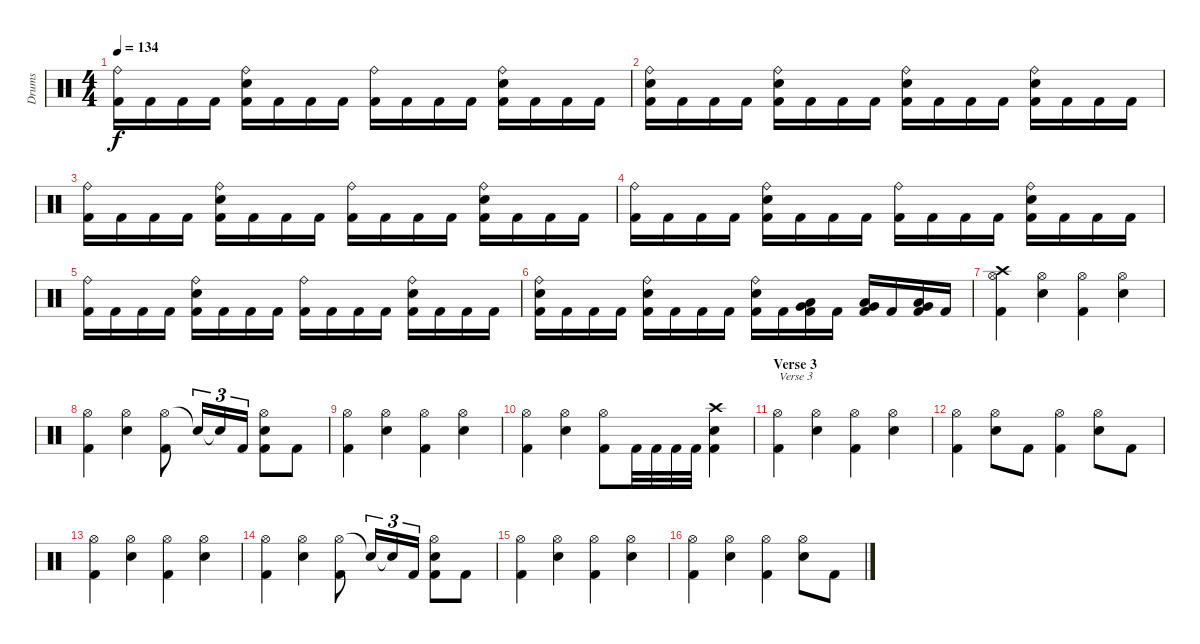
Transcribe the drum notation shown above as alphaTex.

\track ("Drums" "Drums") {instrument percussion}
\staff {score}
\articulation defaults
\ts (4 4)
\tempo 134
\clef neutral
\ks c
("Ride (bell)" "Kick (hit) 2").16{dy f} "Kick (hit) 2".16 "Kick (hit) 2".16 "Kick (hit) 2".16 ("Ride (bell)" "Electric Snare (hit)" "Kick (hit) 2").16 "Kick (hit) 2".16 "Kick (hit) 2".16 "Kick (hit) 2".16 ("Ride (bell)" "Kick (hit) 2").16 "Kick (hit) 2".16 "Kick (hit) 2".16 "Kick (hit) 2".16 ("Ride (bell)" "Electric Snare (hit)" "Kick (hit) 2").16 "Kick (hit) 2".16 "Kick (hit) 2".16 "Kick (hit) 2".16 |
("Ride (bell)" "Electric Snare (hit)" "Kick (hit) 2").16 "Kick (hit) 2".16 "Kick (hit) 2".16 "Kick (hit) 2".16 ("Ride (bell)" "Electric Snare (hit)" "Kick (hit) 2").16 "Kick (hit) 2".16 "Kick (hit) 2".16 "Kick (hit) 2".16 ("Ride (bell)" "Electric Snare (hit)" "Kick (hit) 2").16 "Kick (hit) 2".16 "Kick (hit) 2".16 "Kick (hit) 2".16 ("Ride (bell)" "Electric Snare (hit)" "Kick (hit) 2").16 "Kick (hit) 2".16 "Kick (hit) 2".16 "Kick (hit) 2".16 |
("Ride (bell)" "Kick (hit) 2").16 "Kick (hit) 2".16 "Kick (hit) 2".16 "Kick (hit) 2".16 ("Ride (bell)" "Electric Snare (hit)" "Kick (hit) 2").16 "Kick (hit) 2".16 "Kick (hit) 2".16 "Kick (hit) 2".16 ("Ride (bell)" "Kick (hit) 2").16 "Kick (hit) 2".16 "Kick (hit) 2".16 "Kick (hit) 2".16 ("Ride (bell)" "Electric Snare (hit)" "Kick (hit) 2").16 "Kick (hit) 2".16 "Kick (hit) 2".16 "Kick (hit) 2".16 |
("Ride (bell)" "Kick (hit) 2").16 "Kick (hit) 2".16 "Kick (hit) 2".16 "Kick (hit) 2".16 ("Ride (bell)" "Electric Snare (hit)" "Kick (hit) 2").16 "Kick (hit) 2".16 "Kick (hit) 2".16 "Kick (hit) 2".16 ("Ride (bell)" "Kick (hit) 2").16 "Kick (hit) 2".16 "Kick (hit) 2".16 "Kick (hit) 2".16 ("Ride (bell)" "Electric Snare (hit)" "Kick (hit) 2").16 "Kick (hit) 2".16 "Kick (hit) 2".16 "Kick (hit) 2".16 |
("Ride (bell)" "Kick (hit) 2").16 "Kick (hit) 2".16 "Kick (hit) 2".16 "Kick (hit) 2".16 ("Ride (bell)" "Electric Snare (hit)" "Kick (hit) 2").16 "Kick (hit) 2".16 "Kick (hit) 2".16 "Kick (hit) 2".16 ("Ride (bell)" "Kick (hit) 2").16 "Kick (hit) 2".16 "Kick (hit) 2".16 "Kick (hit) 2".16 ("Ride (bell)" "Electric Snare (hit)" "Kick (hit) 2").16 "Kick (hit) 2".16 "Kick (hit) 2".16 "Kick (hit) 2".16 |
("Ride (bell)" "Electric Snare (hit)" "Kick (hit) 2").16 "Kick (hit) 2".16 "Kick (hit) 2".16 "Kick (hit) 2".16 ("Ride (bell)" "Electric Snare (hit)" "Kick (hit) 2").16 "Kick (hit) 2".16 "Kick (hit) 2".16 "Kick (hit) 2".16 ("Ride (bell)" "Electric Snare (hit)" "Kick (hit) 2").16 "Kick (hit) 2".16 ("Very Low Tom (hit)" "Low Floor Tom (hit)" "Kick (hit) 2").16 "Kick (hit) 2".16 ("Very Low Tom (hit)" "Low Floor Tom (hit)" "Kick (hit) 2").16 "Kick (hit) 2".16 ("Very Low Tom (hit)" "Low Floor Tom (hit)" "Kick (hit) 2").16 "Kick (hit) 2".16 |
("Crash high (hit)" "Hi-Hat (open)" "Kick (hit) 2").4 ("Hi-Hat (open)" "Electric Snare (hit)").4 ("Hi-Hat (open)" "Kick (hit) 2").4 ("Hi-Hat (open)" "Electric Snare (hit)").4 |
("Hi-Hat (open)" "Kick (hit) 2").4 ("Hi-Hat (open)" "Electric Snare (hit)").4 ("Hi-Hat (open)" "Kick (hit) 2").8 "Snare (hit)"{t}.16{tu (3 2)} "Snare (hit)"{t}.16{tu (3 2)} "Kick (hit) 2".16{tu (3 2)} ("Hi-Hat (open)" "Electric Snare (hit)" "Kick (hit) 2").8 "Kick (hit) 2".8 |
("Hi-Hat (open)" "Kick (hit) 2").4 ("Hi-Hat (open)" "Electric Snare (hit)").4 ("Hi-Hat (open)" "Kick (hit) 2").4 ("Hi-Hat (open)" "Electric Snare (hit)").4 |
("Hi-Hat (open)" "Kick (hit) 2").4 ("Hi-Hat (open)" "Electric Snare (hit)").4 ("Hi-Hat (open)" "Kick (hit) 2").8 "Kick (hit) 2".32 "Kick (hit) 2".32 "Kick (hit) 2".32 "Kick (hit) 2".32 ("Crash high (hit)" "Electric Snare (hit)" "Kick (hit) 2").4 |
\section ("" "Verse 3")
("Hi-Hat (open)" "Kick (hit) 2").4{txt "Verse 3"} ("Hi-Hat (open)" "Electric Snare (hit)").4 ("Hi-Hat (open)" "Kick (hit) 2").4 ("Hi-Hat (open)" "Electric Snare (hit)").4 |
("Hi-Hat (open)" "Kick (hit) 2").4 ("Hi-Hat (open)" "Electric Snare (hit)").8 "Kick (hit) 2".8 ("Hi-Hat (open)" "Kick (hit) 2").4 ("Hi-Hat (open)" "Electric Snare (hit)").8 "Kick (hit) 2".8 |
("Hi-Hat (open)" "Kick (hit) 2").4 ("Hi-Hat (open)" "Electric Snare (hit)").4 ("Hi-Hat (open)" "Kick (hit) 2").4 ("Hi-Hat (open)" "Electric Snare (hit)").4 |
("Hi-Hat (open)" "Kick (hit) 2").4 ("Hi-Hat (open)" "Electric Snare (hit)").4 ("Hi-Hat (open)" "Kick (hit) 2").8 "Snare (hit)"{t}.16{tu (3 2)} "Snare (hit)"{t}.16{tu (3 2)} "Kick (hit) 2".16{tu (3 2)} ("Hi-Hat (open)" "Electric Snare (hit)" "Kick (hit) 2").8 "Kick (hit) 2".8 |
("Hi-Hat (open)" "Kick (hit) 2").4 ("Hi-Hat (open)" "Electric Snare (hit)").4 ("Hi-Hat (open)" "Kick (hit) 2").4 ("Hi-Hat (open)" "Electric Snare (hit)").4 |
("Hi-Hat (open)" "Kick (hit) 2").4 ("Hi-Hat (open)" "Electric Snare (hit)").4 ("Hi-Hat (open)" "Kick (hit) 2").4 ("Hi-Hat (open)" "Electric Snare (hit)").8 "Kick (hit) 2".8
